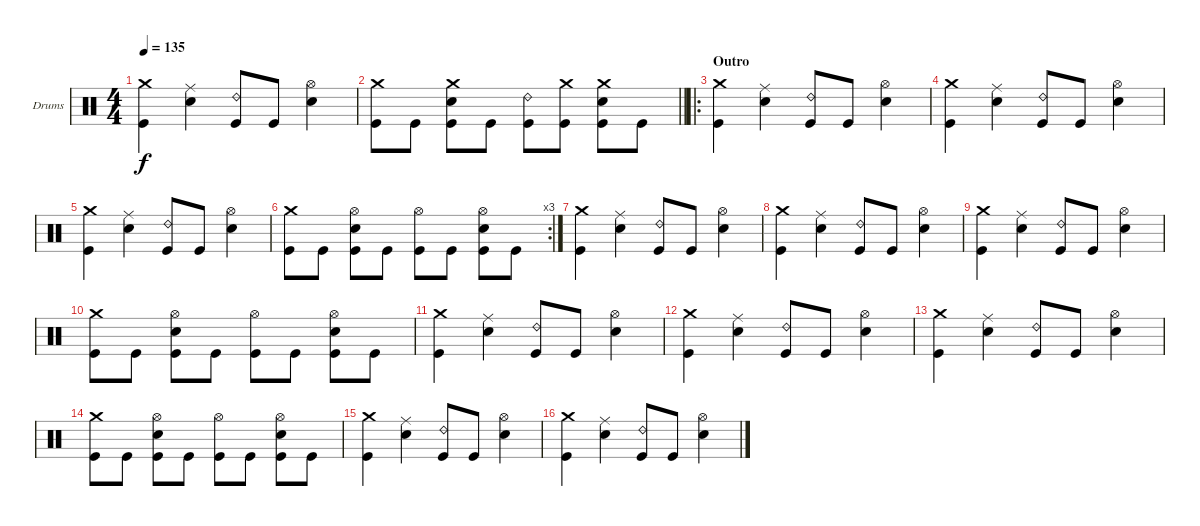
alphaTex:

\bracketExtendMode groupsimilarinstruments
\firstSystemTrackNameOrientation horizontal
\otherSystemsTrackNameOrientation horizontal
\track ("Drumkit" "Drums") {multiBarRest instrument percussion}
\staff {score}
\articulation defaults
\ts (4 4)
\tempo 135
\clef neutral
\ks c
("Crash medium (hit)" "Kick (hit)").4{dy f} ("Ride (middle)" "Snare (hit) 2").4 ("Ride (bell) 2" "Kick (hit)").8 "Kick (hit)".8 ("Hi-Hat (open)" "Snare (hit) 2").4 |
\barLineRight lightlight
("Crash medium (hit)" "Kick (hit)").8 "Kick (hit)".8 ("Crash medium (hit)" "Snare (hit) 2" "Kick (hit)").8 "Kick (hit)".8 ("Ride (bell) 2" "Kick (hit)").8 ("Crash medium (hit)" "Kick (hit)").8 ("Crash medium (hit)" "Snare (hit) 2" "Kick (hit)").8 "Kick (hit)".8 |
\ro
\section ("" "Outro")
("Crash medium (hit)" "Kick (hit)").4 ("Ride (middle)" "Snare (hit) 2").4 ("Ride (bell) 2" "Kick (hit)").8 "Kick (hit)".8 ("Hi-Hat (open)" "Snare (hit) 2").4 |
("Crash medium (hit)" "Kick (hit)").4 ("Ride (middle)" "Snare (hit) 2").4 ("Ride (bell) 2" "Kick (hit)").8 "Kick (hit)".8 ("Hi-Hat (open)" "Snare (hit) 2").4 |
("Crash medium (hit)" "Kick (hit)").4 ("Ride (middle)" "Snare (hit) 2").4 ("Ride (bell) 2" "Kick (hit)").8 "Kick (hit)".8 ("Hi-Hat (open)" "Snare (hit) 2").4 |
\rc 3
("Crash medium (hit)" "Kick (hit)").8 "Kick (hit)".8 ("Hi-Hat (open)" "Snare (hit) 2" "Kick (hit)").8 "Kick (hit)".8 ("Hi-Hat (open)" "Kick (hit)").8 "Kick (hit)".8 ("Hi-Hat (open)" "Snare (hit) 2" "Kick (hit)").8 "Kick (hit)".8 |
("Crash medium (hit)" "Kick (hit)").4 ("Ride (middle)" "Snare (hit) 2").4 ("Ride (bell) 2" "Kick (hit)").8 "Kick (hit)".8 ("Hi-Hat (open)" "Snare (hit) 2").4 |
("Crash medium (hit)" "Kick (hit)").4 ("Ride (middle)" "Snare (hit) 2").4 ("Ride (bell) 2" "Kick (hit)").8 "Kick (hit)".8 ("Hi-Hat (open)" "Snare (hit) 2").4 |
("Crash medium (hit)" "Kick (hit)").4 ("Ride (middle)" "Snare (hit) 2").4 ("Ride (bell) 2" "Kick (hit)").8 "Kick (hit)".8 ("Hi-Hat (open)" "Snare (hit) 2").4 |
("Crash medium (hit)" "Kick (hit)").8 "Kick (hit)".8 ("Hi-Hat (open)" "Snare (hit) 2" "Kick (hit)").8 "Kick (hit)".8 ("Hi-Hat (open)" "Kick (hit)").8 "Kick (hit)".8 ("Hi-Hat (open)" "Snare (hit) 2" "Kick (hit)").8 "Kick (hit)".8 |
("Crash medium (hit)" "Kick (hit)").4 ("Ride (middle)" "Snare (hit) 2").4 ("Ride (bell) 2" "Kick (hit)").8 "Kick (hit)".8 ("Hi-Hat (open)" "Snare (hit) 2").4 |
("Crash medium (hit)" "Kick (hit)").4 ("Ride (middle)" "Snare (hit) 2").4 ("Ride (bell) 2" "Kick (hit)").8 "Kick (hit)".8 ("Hi-Hat (open)" "Snare (hit) 2").4 |
("Crash medium (hit)" "Kick (hit)").4 ("Ride (middle)" "Snare (hit) 2").4 ("Ride (bell) 2" "Kick (hit)").8 "Kick (hit)".8 ("Hi-Hat (open)" "Snare (hit) 2").4 |
("Crash medium (hit)" "Kick (hit)").8 "Kick (hit)".8 ("Hi-Hat (open)" "Snare (hit) 2" "Kick (hit)").8 "Kick (hit)".8 ("Hi-Hat (open)" "Kick (hit)").8 "Kick (hit)".8 ("Hi-Hat (open)" "Snare (hit) 2" "Kick (hit)").8 "Kick (hit)".8 |
("Crash medium (hit)" "Kick (hit)").4 ("Ride (middle)" "Snare (hit) 2").4 ("Ride (bell) 2" "Kick (hit)").8 "Kick (hit)".8 ("Hi-Hat (open)" "Snare (hit) 2").4 |
("Crash medium (hit)" "Kick (hit)").4 ("Ride (middle)" "Snare (hit) 2").4 ("Ride (bell) 2" "Kick (hit)").8 "Kick (hit)".8 ("Hi-Hat (open)" "Snare (hit) 2").4
